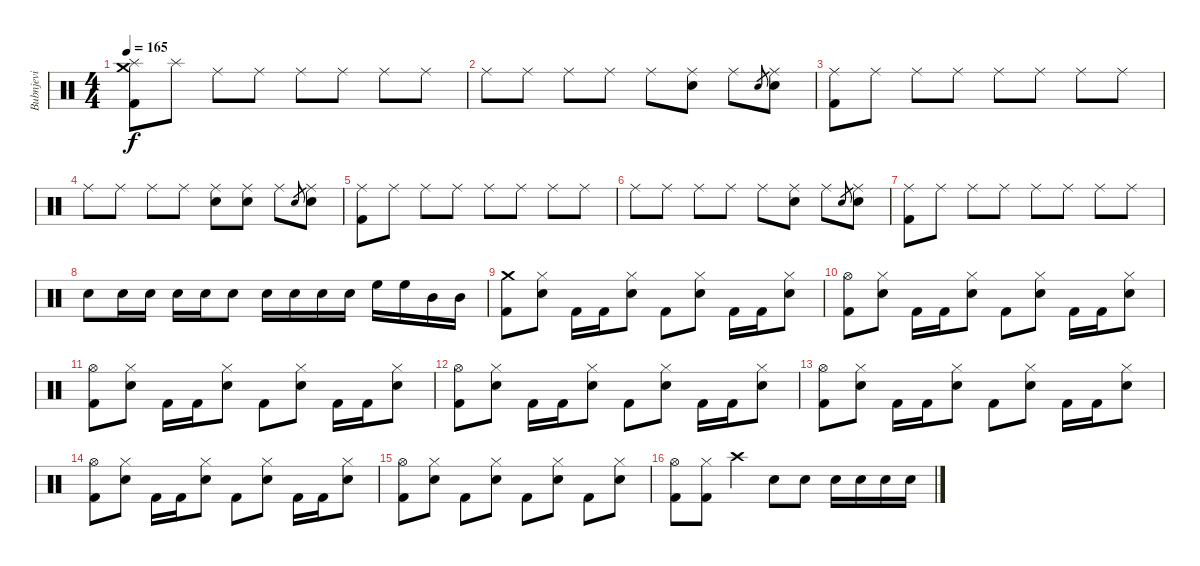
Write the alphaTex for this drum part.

\track ("Bubnjevi" "Bubnjevi") {instrument percussion}
\staff {score}
\articulation defaults
\ts (4 4)
\tempo 165
\clef neutral
\ks c
("Crash medium (hit)" "Splash (hit)" "Kick (hit) 2").8{dy f} "Splash (hit)".8 "Ride (middle)".8 "Ride (middle)".8 "Ride (middle)".8 "Ride (middle)".8 "Ride (middle)".8 "Ride (middle)".8 |
"Ride (middle)".8 "Ride (middle)".8 "Ride (middle)".8 "Ride (middle)".8 "Ride (middle)".8 ("Ride (middle)" "Electric Snare (hit)").8 "Ride (middle)".8 "Electric Snare (hit)".8{gr} ("Ride (middle)" "Electric Snare (hit)").8 |
("Ride (middle)" "Kick (hit) 2").8 "Ride (middle)".8 "Ride (middle)".8 "Ride (middle)".8 "Ride (middle)".8 "Ride (middle)".8 "Ride (middle)".8 "Ride (middle)".8 |
"Ride (middle)".8 "Ride (middle)".8 "Ride (middle)".8 "Ride (middle)".8 ("Ride (middle)" "Electric Snare (hit)").8 ("Ride (middle)" "Electric Snare (hit)").8 "Ride (middle)".8 "Electric Snare (hit)".8{gr} ("Ride (middle)" "Electric Snare (hit)").8 |
("Ride (middle)" "Kick (hit) 2").8 "Ride (middle)".8 "Ride (middle)".8 "Ride (middle)".8 "Ride (middle)".8 "Ride (middle)".8 "Ride (middle)".8 "Ride (middle)".8 |
"Ride (middle)".8 "Ride (middle)".8 "Ride (middle)".8 "Ride (middle)".8 "Ride (middle)".8 ("Ride (middle)" "Electric Snare (hit)").8 "Ride (middle)".8 "Electric Snare (hit)".8{gr} ("Ride (middle)" "Electric Snare (hit)").8 |
("Ride (middle)" "Kick (hit) 2").8 "Ride (middle)".8 "Ride (middle)".8 "Ride (middle)".8 "Ride (middle)".8 "Ride (middle)".8 "Ride (middle)".8 "Ride (middle)".8 |
"Electric Snare (hit)".8 "Electric Snare (hit)".16 "Electric Snare (hit)".16 "Electric Snare (hit)".16 "Electric Snare (hit)".16 "Electric Snare (hit)".8 "Electric Snare (hit)".16 "Electric Snare (hit)".16 "Electric Snare (hit)".16 "Electric Snare (hit)".16 "High Floor Tom (hit)".16 "High Floor Tom (hit)".16 "Mid Tom (hit)".16 "Mid Tom (hit)".16 |
("Crash medium (hit)" "Kick (hit) 2").8 ("Hi-Hat (closed)" "Electric Snare (hit)").8 "Kick (hit) 2".16 "Kick (hit) 2".16 ("Hi-Hat (closed)" "Electric Snare (hit)").8 "Kick (hit) 2".8 ("Hi-Hat (closed)" "Electric Snare (hit)").8 "Kick (hit) 2".16 "Kick (hit) 2".16 ("Hi-Hat (closed)" "Electric Snare (hit)").8 |
("Hi-Hat (open)" "Kick (hit) 2").8 ("Hi-Hat (closed)" "Electric Snare (hit)").8 "Kick (hit) 2".16 "Kick (hit) 2".16 ("Hi-Hat (closed)" "Electric Snare (hit)").8 "Kick (hit) 2".8 ("Hi-Hat (closed)" "Electric Snare (hit)").8 "Kick (hit) 2".16 "Kick (hit) 2".16 ("Hi-Hat (closed)" "Electric Snare (hit)").8 |
("Hi-Hat (open)" "Kick (hit) 2").8 ("Hi-Hat (closed)" "Electric Snare (hit)").8 "Kick (hit) 2".16 "Kick (hit) 2".16 ("Hi-Hat (closed)" "Electric Snare (hit)").8 "Kick (hit) 2".8 ("Hi-Hat (closed)" "Electric Snare (hit)").8 "Kick (hit) 2".16 "Kick (hit) 2".16 ("Hi-Hat (closed)" "Electric Snare (hit)").8 |
("Hi-Hat (open)" "Kick (hit) 2").8 ("Hi-Hat (closed)" "Electric Snare (hit)").8 "Kick (hit) 2".16 "Kick (hit) 2".16 ("Hi-Hat (closed)" "Electric Snare (hit)").8 "Kick (hit) 2".8 ("Hi-Hat (closed)" "Electric Snare (hit)").8 "Kick (hit) 2".16 "Kick (hit) 2".16 ("Hi-Hat (closed)" "Electric Snare (hit)").8 |
("Hi-Hat (open)" "Kick (hit) 2").8 ("Hi-Hat (closed)" "Electric Snare (hit)").8 "Kick (hit) 2".16 "Kick (hit) 2".16 ("Hi-Hat (closed)" "Electric Snare (hit)").8 "Kick (hit) 2".8 ("Hi-Hat (closed)" "Electric Snare (hit)").8 "Kick (hit) 2".16 "Kick (hit) 2".16 ("Hi-Hat (closed)" "Electric Snare (hit)").8 |
("Hi-Hat (open)" "Kick (hit) 2").8 ("Hi-Hat (closed)" "Electric Snare (hit)").8 "Kick (hit) 2".16 "Kick (hit) 2".16 ("Hi-Hat (closed)" "Electric Snare (hit)").8 "Kick (hit) 2".8 ("Hi-Hat (closed)" "Electric Snare (hit)").8 "Kick (hit) 2".16 "Kick (hit) 2".16 ("Hi-Hat (closed)" "Electric Snare (hit)").8 |
("Hi-Hat (open)" "Kick (hit) 2").8 ("Hi-Hat (closed)" "Electric Snare (hit)").8 "Kick (hit) 2".8 ("Hi-Hat (closed)" "Electric Snare (hit)").8 "Kick (hit) 2".8 ("Hi-Hat (closed)" "Electric Snare (hit)").8 "Kick (hit) 2".8 ("Hi-Hat (closed)" "Electric Snare (hit)").8 |
("Hi-Hat (open)" "Kick (hit) 2").8 ("Hi-Hat (closed)" "Kick (hit) 2").8 "Crash high (hit)".4 "Electric Snare (hit)".8 "Electric Snare (hit)".8 "Electric Snare (hit)".16 "Electric Snare (hit)".16 "Electric Snare (hit)".16 "Electric Snare (hit)".16
